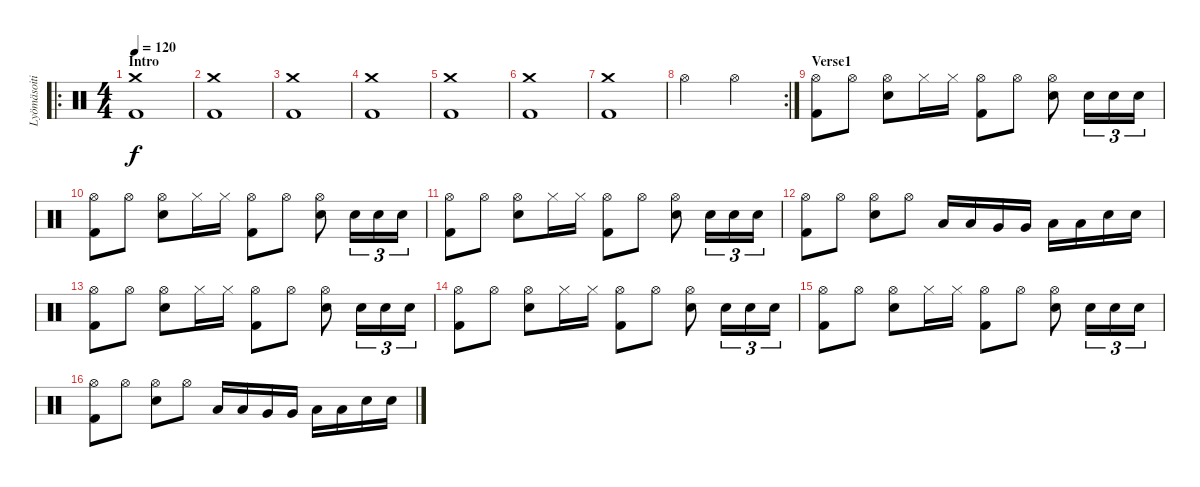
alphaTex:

\track ("Lyömäsoitin" "Lyömäsoiti") {instrument percussion}
\staff {score}
\articulation defaults
\ro
\ts (4 4)
\section ("" "Intro")
\tempo 120
\clef neutral
\ks c
("Crash medium (hit)" "Kick (hit) 2").1{dy f} |
("Crash medium (hit)" "Kick (hit) 2").1 |
("Crash medium (hit)" "Kick (hit) 2").1 |
("Crash medium (hit)" "Kick (hit) 2").1 |
("Crash medium (hit)" "Kick (hit) 2").1 |
("Crash medium (hit)" "Kick (hit) 2").1 |
("Crash medium (hit)" "Kick (hit) 2").1 |
\rc 2 "Hi-Hat (open)".2 "Hi-Hat (open)".2
|
\section ("" "Verse1")
("Hi-Hat (open)" "Kick (hit) 2").8 "Hi-Hat (open)".8 ("Hi-Hat (open)" "Electric Snare (hit)").8 "Hi-Hat (closed)".16 "Hi-Hat (closed)".16 ("Hi-Hat (open)" "Kick (hit) 2").8 "Hi-Hat (open)".8 ("Hi-Hat (open)" "Electric Snare (hit)").8 "Electric Snare (hit)".16{tu (3 2)} "Electric Snare (hit)".16{tu (3 2)} "Electric Snare (hit)".16{tu (3 2)} |
("Hi-Hat (open)" "Kick (hit) 2").8 "Hi-Hat (open)".8 ("Hi-Hat (open)" "Electric Snare (hit)").8 "Hi-Hat (closed)".16 "Hi-Hat (closed)".16 ("Hi-Hat (open)" "Kick (hit) 2").8 "Hi-Hat (open)".8 ("Hi-Hat (open)" "Electric Snare (hit)").8 "Electric Snare (hit)".16{tu (3 2)} "Electric Snare (hit)".16{tu (3 2)} "Electric Snare (hit)".16{tu (3 2)} |
("Hi-Hat (open)" "Kick (hit) 2").8 "Hi-Hat (open)".8 ("Hi-Hat (open)" "Electric Snare (hit)").8 "Hi-Hat (closed)".16 "Hi-Hat (closed)".16 ("Hi-Hat (open)" "Kick (hit) 2").8 "Hi-Hat (open)".8 ("Hi-Hat (open)" "Electric Snare (hit)").8 "Electric Snare (hit)".16{tu (3 2)} "Electric Snare (hit)".16{tu (3 2)} "Electric Snare (hit)".16{tu (3 2)} |
("Hi-Hat (open)" "Kick (hit) 2").8 "Hi-Hat (open)".8 ("Hi-Hat (open)" "Electric Snare (hit)").8 "Hi-Hat (open)".8 "Low Tom (hit)".16 "Low Tom (hit)".16 "Very Low Tom (hit)".16 "Very Low Tom (hit)".16 "Low Floor Tom (hit)".16 "Low Floor Tom (hit)".16 "Snare (hit) 2".16 "Snare (hit) 2".16 |
("Hi-Hat (open)" "Kick (hit) 2").8 "Hi-Hat (open)".8 ("Hi-Hat (open)" "Electric Snare (hit)").8 "Hi-Hat (closed)".16 "Hi-Hat (closed)".16 ("Hi-Hat (open)" "Kick (hit) 2").8 "Hi-Hat (open)".8 ("Hi-Hat (open)" "Electric Snare (hit)").8 "Electric Snare (hit)".16{tu (3 2)} "Electric Snare (hit)".16{tu (3 2)} "Electric Snare (hit)".16{tu (3 2)} |
("Hi-Hat (open)" "Kick (hit) 2").8 "Hi-Hat (open)".8 ("Hi-Hat (open)" "Electric Snare (hit)").8 "Hi-Hat (closed)".16 "Hi-Hat (closed)".16 ("Hi-Hat (open)" "Kick (hit) 2").8 "Hi-Hat (open)".8 ("Hi-Hat (open)" "Electric Snare (hit)").8 "Electric Snare (hit)".16{tu (3 2)} "Electric Snare (hit)".16{tu (3 2)} "Electric Snare (hit)".16{tu (3 2)} |
("Hi-Hat (open)" "Kick (hit) 2").8 "Hi-Hat (open)".8 ("Hi-Hat (open)" "Electric Snare (hit)").8 "Hi-Hat (closed)".16 "Hi-Hat (closed)".16 ("Hi-Hat (open)" "Kick (hit) 2").8 "Hi-Hat (open)".8 ("Hi-Hat (open)" "Electric Snare (hit)").8 "Electric Snare (hit)".16{tu (3 2)} "Electric Snare (hit)".16{tu (3 2)} "Electric Snare (hit)".16{tu (3 2)} |
("Hi-Hat (open)" "Kick (hit) 2").8 "Hi-Hat (open)".8 ("Hi-Hat (open)" "Electric Snare (hit)").8 "Hi-Hat (open)".8 "Low Tom (hit)".16 "Low Tom (hit)".16 "Very Low Tom (hit)".16 "Very Low Tom (hit)".16 "Low Floor Tom (hit)".16 "Low Floor Tom (hit)".16 "Snare (hit) 2".16 "Snare (hit) 2".16
